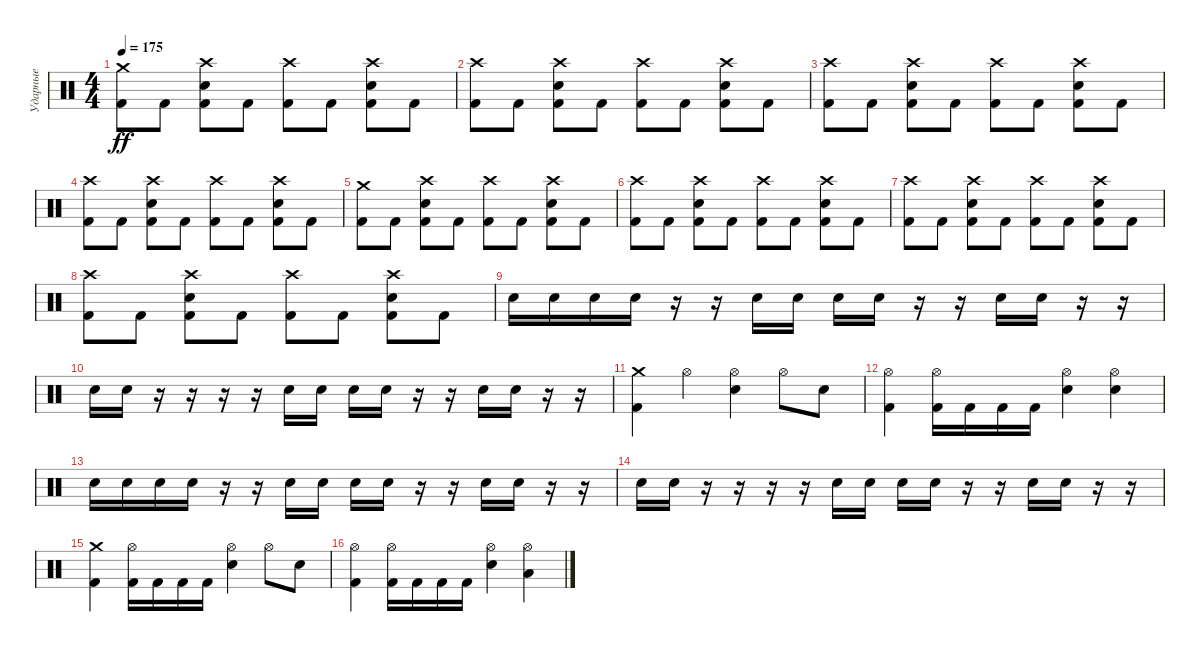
\track ("Ударные" "Ударные") {instrument percussion}
\staff {score}
\articulation defaults
\ts (4 4)
\tempo 175
\clef neutral
\ks c
("Kick (hit) 2" "Crash medium (hit)").8{dy ff} "Kick (hit) 2".8 ("Kick (hit) 2" "Electric Snare (hit)" "Crash high (hit)").8 "Kick (hit) 2".8 ("Kick (hit) 2" "Crash high (hit)").8 "Kick (hit) 2".8 ("Kick (hit) 2" "Electric Snare (hit)" "Crash high (hit)").8 "Kick (hit) 2".8 |
("Kick (hit) 2" "Crash high (hit)").8 "Kick (hit) 2".8 ("Kick (hit) 2" "Electric Snare (hit)" "Crash high (hit)").8 "Kick (hit) 2".8 ("Kick (hit) 2" "Crash high (hit)").8 "Kick (hit) 2".8 ("Kick (hit) 2" "Electric Snare (hit)" "Crash high (hit)").8 "Kick (hit) 2".8 |
("Kick (hit) 2" "Crash high (hit)").8 "Kick (hit) 2".8 ("Kick (hit) 2" "Electric Snare (hit)" "Crash high (hit)").8 "Kick (hit) 2".8 ("Kick (hit) 2" "Crash high (hit)").8 "Kick (hit) 2".8 ("Kick (hit) 2" "Electric Snare (hit)" "Crash high (hit)").8 "Kick (hit) 2".8 |
("Kick (hit) 2" "Crash high (hit)").8 "Kick (hit) 2".8 ("Kick (hit) 2" "Electric Snare (hit)" "Crash high (hit)").8 "Kick (hit) 2".8 ("Kick (hit) 2" "Crash high (hit)").8 "Kick (hit) 2".8 ("Kick (hit) 2" "Electric Snare (hit)" "Crash high (hit)").8 "Kick (hit) 2".8 |
("Kick (hit) 2" "Crash medium (hit)").8 "Kick (hit) 2".8 ("Kick (hit) 2" "Electric Snare (hit)" "Crash high (hit)").8 "Kick (hit) 2".8 ("Kick (hit) 2" "Crash high (hit)").8 "Kick (hit) 2".8 ("Kick (hit) 2" "Electric Snare (hit)" "Crash high (hit)").8 "Kick (hit) 2".8 |
("Kick (hit) 2" "Crash high (hit)").8 "Kick (hit) 2".8 ("Kick (hit) 2" "Electric Snare (hit)" "Crash high (hit)").8 "Kick (hit) 2".8 ("Kick (hit) 2" "Crash high (hit)").8 "Kick (hit) 2".8 ("Kick (hit) 2" "Electric Snare (hit)" "Crash high (hit)").8 "Kick (hit) 2".8 |
("Kick (hit) 2" "Crash high (hit)").8 "Kick (hit) 2".8 ("Kick (hit) 2" "Electric Snare (hit)" "Crash high (hit)").8 "Kick (hit) 2".8 ("Kick (hit) 2" "Crash high (hit)").8 "Kick (hit) 2".8 ("Kick (hit) 2" "Electric Snare (hit)" "Crash high (hit)").8 "Kick (hit) 2".8 |
("Kick (hit) 2" "Crash high (hit)").8 "Kick (hit) 2".8 ("Kick (hit) 2" "Electric Snare (hit)" "Crash high (hit)").8 "Kick (hit) 2".8 ("Kick (hit) 2" "Crash high (hit)").8 "Kick (hit) 2".8 ("Kick (hit) 2" "Electric Snare (hit)" "Crash high (hit)").8 "Kick (hit) 2".8 |
"Electric Snare (hit)".16 "Electric Snare (hit)".16 "Electric Snare (hit)".16 "Electric Snare (hit)".16 r.16 r.16 "Electric Snare (hit)".16 "Electric Snare (hit)".16 "Electric Snare (hit)".16 "Electric Snare (hit)".16 r.16 r.16 "Electric Snare (hit)".16 "Electric Snare (hit)".16 r.16 r.16 |
"Electric Snare (hit)".16 "Electric Snare (hit)".16 r.16 r.16 r.16 r.16 "Electric Snare (hit)".16 "Electric Snare (hit)".16 "Electric Snare (hit)".16 "Electric Snare (hit)".16 r.16 r.16 "Electric Snare (hit)".16 "Electric Snare (hit)".16 r.16 r.16 |
("Kick (hit) 2" "Crash medium (hit)").4 "Hi-Hat (open)".4 ("Electric Snare (hit)" "Hi-Hat (open)").4 "Hi-Hat (open)".8 "Electric Snare (hit)".8 |
("Kick (hit) 2" "Hi-Hat (open)").4 ("Kick (hit) 2" "Hi-Hat (open)").16 "Kick (hit) 2".16 "Kick (hit) 2".16 "Kick (hit) 2".16 ("Electric Snare (hit)" "Hi-Hat (open)").4 ("Electric Snare (hit)" "Hi-Hat (open)").4 |
"Electric Snare (hit)".16 "Electric Snare (hit)".16 "Electric Snare (hit)".16 "Electric Snare (hit)".16 r.16 r.16 "Electric Snare (hit)".16 "Electric Snare (hit)".16 "Electric Snare (hit)".16 "Electric Snare (hit)".16 r.16 r.16 "Electric Snare (hit)".16 "Electric Snare (hit)".16 r.16 r.16 |
"Electric Snare (hit)".16 "Electric Snare (hit)".16 r.16 r.16 r.16 r.16 "Electric Snare (hit)".16 "Electric Snare (hit)".16 "Electric Snare (hit)".16 "Electric Snare (hit)".16 r.16 r.16 "Electric Snare (hit)".16 "Electric Snare (hit)".16 r.16 r.16 |
("Kick (hit) 2" "Crash medium (hit)").4 ("Kick (hit) 2" "Hi-Hat (open)").16 "Kick (hit) 2".16 "Kick (hit) 2".16 "Kick (hit) 2".16 ("Electric Snare (hit)" "Hi-Hat (open)").4 "Hi-Hat (open)".8 "Electric Snare (hit)".8 |
("Kick (hit) 2" "Hi-Hat (open)").4 ("Kick (hit) 2" "Hi-Hat (open)").16 "Kick (hit) 2".16 "Kick (hit) 2".16 "Kick (hit) 2".16 ("Electric Snare (hit)" "Hi-Hat (open)").4 ("Low Tom (hit)" "Hi-Hat (open)").4
